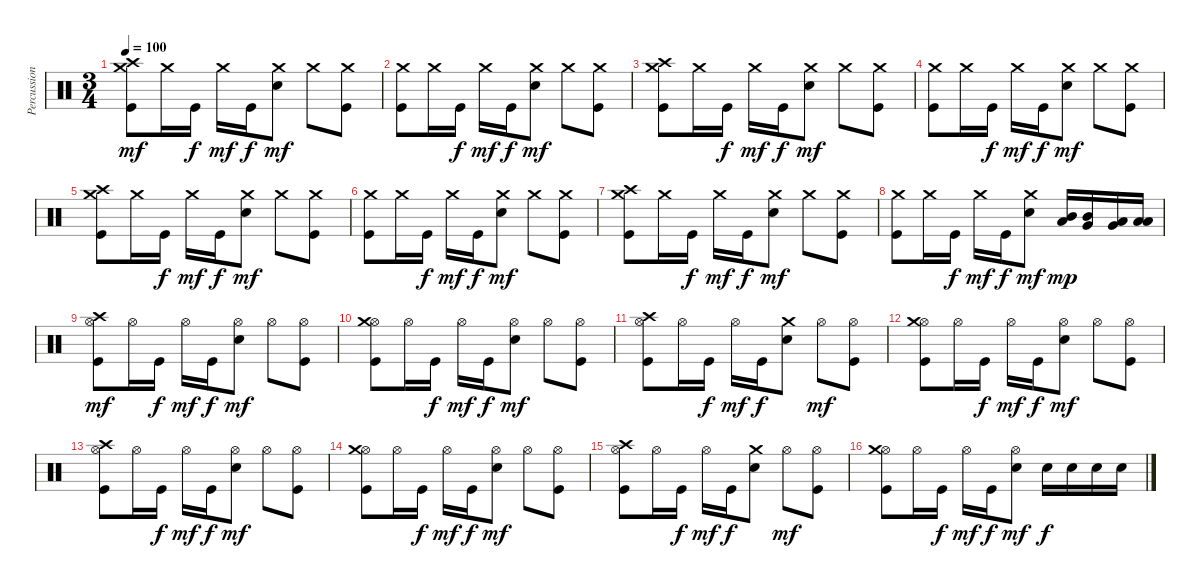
\track ("Percussions" "Percussion") {instrument percussion}
\staff {score}
\articulation defaults
\ts (3 4)
\tempo 100
\clef neutral
\ks c
("Kick (hit)" "Crash medium (hit)" "Crash high (hit)").8{dy mf} "Crash medium (hit)".16 "Kick (hit)".16{dy f} "Crash medium (hit)".16{dy mf} "Kick (hit)".16{dy f} ("Electric Snare (hit)" "Crash medium (hit)").8{dy mf} "Crash medium (hit)".8 ("Kick (hit)" "Crash medium (hit)").8 |
("Kick (hit)" "Crash medium (hit)").8 "Crash medium (hit)".16 "Kick (hit)".16{dy f} "Crash medium (hit)".16{dy mf} "Kick (hit)".16{dy f} ("Electric Snare (hit)" "Crash medium (hit)").8{dy mf} "Crash medium (hit)".8 ("Kick (hit)" "Crash medium (hit)").8 |
("Kick (hit)" "Crash medium (hit)" "Crash high (hit)").8 "Crash medium (hit)".16 "Kick (hit)".16{dy f} "Crash medium (hit)".16{dy mf} "Kick (hit)".16{dy f} ("Electric Snare (hit)" "Crash medium (hit)").8{dy mf} "Crash medium (hit)".8 ("Kick (hit)" "Crash medium (hit)").8 |
("Kick (hit)" "Crash medium (hit)").8 "Crash medium (hit)".16 "Kick (hit)".16{dy f} "Crash medium (hit)".16{dy mf} "Kick (hit)".16{dy f} ("Electric Snare (hit)" "Crash medium (hit)").8{dy mf} "Crash medium (hit)".8 ("Kick (hit)" "Crash medium (hit)").8 |
("Kick (hit)" "Crash medium (hit)" "Crash high (hit)").8 "Crash medium (hit)".16 "Kick (hit)".16{dy f} "Crash medium (hit)".16{dy mf} "Kick (hit)".16{dy f} ("Electric Snare (hit)" "Crash medium (hit)").8{dy mf} "Crash medium (hit)".8 ("Kick (hit)" "Crash medium (hit)").8 |
("Kick (hit)" "Crash medium (hit)").8 "Crash medium (hit)".16 "Kick (hit)".16{dy f} "Crash medium (hit)".16{dy mf} "Kick (hit)".16{dy f} ("Electric Snare (hit)" "Crash medium (hit)").8{dy mf} "Crash medium (hit)".8 ("Kick (hit)" "Crash medium (hit)").8 |
("Kick (hit)" "Crash medium (hit)" "Crash high (hit)").8 "Crash medium (hit)".16 "Kick (hit)".16{dy f} "Crash medium (hit)".16{dy mf} "Kick (hit)".16{dy f} ("Electric Snare (hit)" "Crash medium (hit)").8{dy mf} "Crash medium (hit)".8 ("Kick (hit)" "Crash medium (hit)").8 |
("Kick (hit)" "Crash medium (hit)").8 "Crash medium (hit)".16 "Kick (hit)".16{dy f} "Crash medium (hit)".16{dy mf} "Kick (hit)".16{dy f} ("Electric Snare (hit)" "Crash medium (hit)").8{dy mf} ("Low Tom (hit)" "Mid Tom (hit)").16{dy mp} ("Very Low Tom (hit)" "Mid Tom (hit)").16 ("Very Low Tom (hit)" "Low Tom (hit)").16 ("Low Floor Tom (hit)" "Low Tom (hit)").16 |
("Kick (hit)" "Hi-Hat (open)" "Crash high (hit)").8{dy mf} "Hi-Hat (open)".16 "Kick (hit)".16{dy f} "Hi-Hat (open)".16{dy mf} "Kick (hit)".16{dy f} ("Electric Snare (hit)" "Hi-Hat (open)").8{dy mf} "Hi-Hat (open)".8 ("Kick (hit)" "Hi-Hat (open)").8 |
("Kick (hit)" "Hi-Hat (open)" "Crash medium (hit)").8 "Hi-Hat (open)".16 "Kick (hit)".16{dy f} "Hi-Hat (open)".16{dy mf} "Kick (hit)".16{dy f} ("Electric Snare (hit)" "Hi-Hat (open)").8{dy mf} "Hi-Hat (open)".8 ("Kick (hit)" "Hi-Hat (open)").8 |
("Kick (hit)" "Hi-Hat (open)" "Crash high (hit)").8 "Hi-Hat (open)".16 "Kick (hit)".16{dy f} "Hi-Hat (open)".16{dy mf} "Kick (hit)".16{dy f} ("Electric Snare (hit)" "Crash medium (hit)").8 "Hi-Hat (open)".8{dy mf} ("Kick (hit)" "Hi-Hat (open)").8 |
("Kick (hit)" "Hi-Hat (open)" "Crash medium (hit)").8 "Hi-Hat (open)".16 "Kick (hit)".16{dy f} "Hi-Hat (open)".16{dy mf} "Kick (hit)".16{dy f} ("Electric Snare (hit)" "Hi-Hat (open)").8{dy mf} "Hi-Hat (open)".8 ("Kick (hit)" "Hi-Hat (open)").8 |
("Kick (hit)" "Hi-Hat (open)" "Crash high (hit)").8 "Hi-Hat (open)".16 "Kick (hit)".16{dy f} "Hi-Hat (open)".16{dy mf} "Kick (hit)".16{dy f} ("Electric Snare (hit)" "Hi-Hat (open)").8{dy mf} "Hi-Hat (open)".8 ("Kick (hit)" "Hi-Hat (open)").8 |
("Kick (hit)" "Hi-Hat (open)" "Crash medium (hit)").8 "Hi-Hat (open)".16 "Kick (hit)".16{dy f} "Hi-Hat (open)".16{dy mf} "Kick (hit)".16{dy f} ("Electric Snare (hit)" "Hi-Hat (open)").8{dy mf} "Hi-Hat (open)".8 ("Kick (hit)" "Hi-Hat (open)").8 |
("Kick (hit)" "Hi-Hat (open)" "Crash high (hit)").8 "Hi-Hat (open)".16 "Kick (hit)".16{dy f} "Hi-Hat (open)".16{dy mf} "Kick (hit)".16{dy f} ("Electric Snare (hit)" "Crash medium (hit)").8 "Hi-Hat (open)".8{dy mf} ("Kick (hit)" "Hi-Hat (open)").8 |
("Kick (hit)" "Hi-Hat (open)" "Crash medium (hit)").8 "Hi-Hat (open)".16 "Kick (hit)".16{dy f} "Hi-Hat (open)".16{dy mf} "Kick (hit)".16{dy f} ("Electric Snare (hit)" "Hi-Hat (open)").8{dy mf} "Electric Snare (hit)".16{dy f} "Electric Snare (hit)".16 "Electric Snare (hit)".16 "Electric Snare (hit)".16
